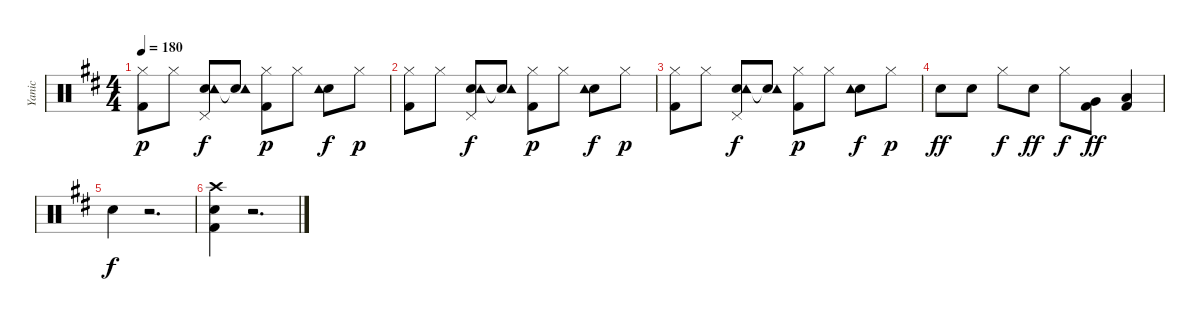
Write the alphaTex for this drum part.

\track ("Yanic" "Yanic") {instrument percussion}
\staff {score}
\articulation defaults
\ts (4 4)
\tempo 180
\clef neutral
\ks d
("Kick (hit) 2" "Hi-Hat (closed)").8{dy p} "Hi-Hat (closed)".8 ("Electric Snare (hit)" "Tambourine (hit)" "Pedal Hi-Hat (hit)").8{dy f} ("Electric Snare (hit)" "Tambourine (hit)"{t}).8 ("Kick (hit) 2" "Hi-Hat (closed)").8{dy p} "Hi-Hat (closed)".8 ("Electric Snare (hit)" "Tambourine (hit)").8{dy f} "Hi-Hat (closed)".8{dy p} |
("Kick (hit) 2" "Hi-Hat (closed)").8 "Hi-Hat (closed)".8 ("Electric Snare (hit)" "Tambourine (hit)" "Pedal Hi-Hat (hit)").8{dy f} ("Electric Snare (hit)" "Tambourine (hit)"{t}).8 ("Kick (hit) 2" "Hi-Hat (closed)").8{dy p} "Hi-Hat (closed)".8 ("Electric Snare (hit)" "Tambourine (hit)").8{dy f} "Hi-Hat (closed)".8{dy p} |
("Kick (hit) 2" "Hi-Hat (closed)").8 "Hi-Hat (closed)".8 ("Electric Snare (hit)" "Tambourine (hit)" "Pedal Hi-Hat (hit)").8{dy f} ("Electric Snare (hit)" "Tambourine (hit)"{t}).8 ("Kick (hit) 2" "Hi-Hat (closed)").8{dy p} "Hi-Hat (closed)".8 ("Electric Snare (hit)" "Tambourine (hit)").8{dy f} "Hi-Hat (closed)".8{dy p} |
"Electric Snare (hit)".8{dy ff} "Electric Snare (hit)".8 "Hi-Hat (closed)".8{dy f} "Electric Snare (hit)".8{dy ff} "Hi-Hat (closed)".8{dy f} ("Very Low Tom (hit)" "Kick (hit) 2").8{dy ff} ("Low Floor Tom (hit)" "Kick (hit) 2").4 |
"Electric Snare (hit)".4{dy f} r.2{d} |
("Kick (hit) 2" "Electric Snare (hit)" "Crash high (hit)").4 r.2{d}
